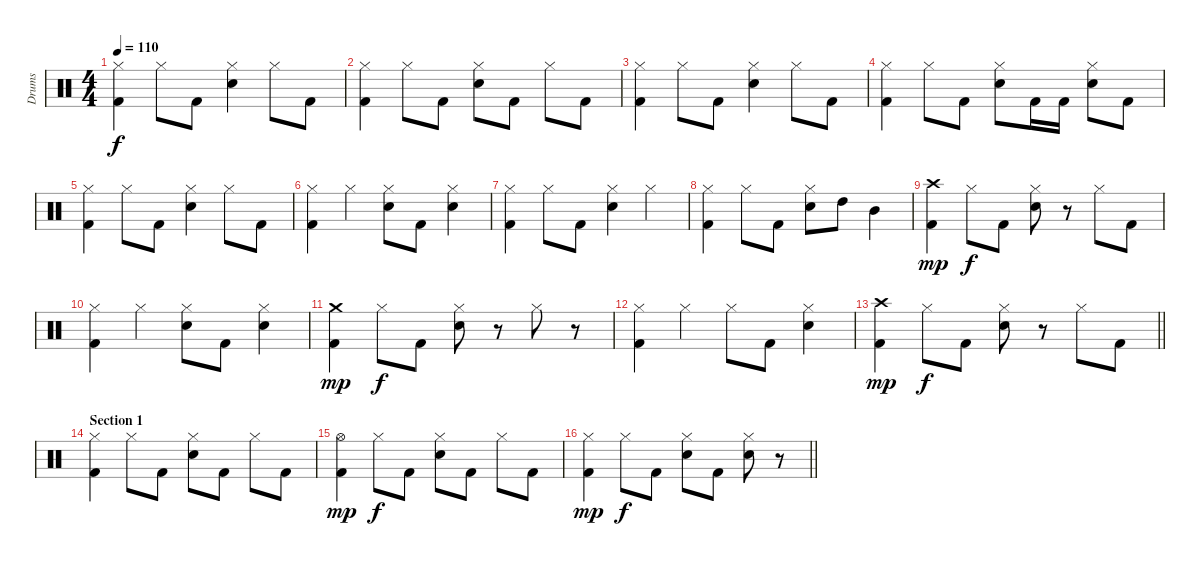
\track ("Drums" "Drums") {instrument percussion}
\staff {score}
\articulation defaults
\ts (4 4)
\tempo 110
\clef neutral
\ks c
("Hi-Hat (closed)" "Kick (hit) 2").4{dy f} "Hi-Hat (closed)".8 "Kick (hit) 2".8 ("Hi-Hat (closed)" "Snare (hit) 2").4 "Hi-Hat (closed)".8 "Kick (hit) 2".8 |
("Hi-Hat (closed)" "Kick (hit) 2").4 "Hi-Hat (closed)".8 "Kick (hit) 2".8 ("Hi-Hat (closed)" "Snare (hit) 2").8 "Kick (hit) 2".8 "Hi-Hat (closed)".8 "Kick (hit) 2".8 |
("Hi-Hat (closed)" "Kick (hit) 2").4 "Hi-Hat (closed)".8 "Kick (hit) 2".8 ("Hi-Hat (closed)" "Snare (hit) 2").4 "Hi-Hat (closed)".8 "Kick (hit) 2".8 |
("Hi-Hat (closed)" "Kick (hit) 2").4 "Hi-Hat (closed)".8 "Kick (hit) 2".8 ("Hi-Hat (closed)" "Snare (hit) 2").8 "Kick (hit) 2".16 "Kick (hit) 2".16 ("Hi-Hat (closed)" "Snare (hit) 2").8 "Kick (hit) 2".8 |
("Hi-Hat (closed)" "Kick (hit) 2").4 "Hi-Hat (closed)".8 "Kick (hit) 2".8 ("Hi-Hat (closed)" "Snare (hit) 2").4 "Hi-Hat (closed)".8 "Kick (hit) 2".8 |
("Hi-Hat (closed)" "Kick (hit) 2").4 "Hi-Hat (closed)".4 ("Hi-Hat (closed)" "Snare (hit) 2").8 "Kick (hit) 2".8 ("Hi-Hat (closed)" "Snare (hit) 2").4 |
("Hi-Hat (closed)" "Kick (hit) 2").4 "Hi-Hat (closed)".8 "Kick (hit) 2".8 ("Hi-Hat (closed)" "Snare (hit) 2").4 "Hi-Hat (closed)".4 |
("Hi-Hat (closed)" "Kick (hit) 2").4 "Hi-Hat (closed)".8 "Kick (hit) 2".8 ("Hi-Hat (closed)" "Snare (hit) 2").8 "High Tom (hit)".8 "Mid Tom (hit)".4 |
("Crash high (hit)" "Kick (hit) 2").4{dy mp} "Hi-Hat (closed)".8{dy f} "Kick (hit) 2".8 ("Hi-Hat (closed)" "Snare (hit) 2").8 r.8 "Hi-Hat (closed)".8 "Kick (hit) 2".8 |
("Hi-Hat (closed)" "Kick (hit) 2").4 "Hi-Hat (closed)".4 ("Hi-Hat (closed)" "Snare (hit) 2").8 "Kick (hit) 2".8 ("Hi-Hat (closed)" "Snare (hit) 2").4 |
("Crash medium (hit)" "Kick (hit) 2").4{dy mp} "Hi-Hat (closed)".8{dy f} "Kick (hit) 2".8 ("Hi-Hat (closed)" "Snare (hit) 2").8 r.8 "Hi-Hat (closed)".8 r.8 |
("Hi-Hat (closed)" "Kick (hit) 2").4 "Hi-Hat (closed)".4 "Hi-Hat (closed)".8 "Kick (hit) 2".8 ("Hi-Hat (closed)" "Snare (hit) 2").4 |
\barLineRight lightlight
("Crash high (hit)" "Kick (hit) 2").4{dy mp} "Hi-Hat (closed)".8{dy f} "Kick (hit) 2".8 ("Hi-Hat (closed)" "Snare (hit) 2").8 r.8 "Hi-Hat (closed)".8 "Kick (hit) 2".8 |
\section ("" "Section 1")
("Hi-Hat (closed)" "Kick (hit) 2").4 "Hi-Hat (closed)".8 "Kick (hit) 2".8 ("Hi-Hat (closed)" "Snare (hit) 2").8 "Kick (hit) 2".8 "Hi-Hat (closed)".8 "Kick (hit) 2".8 |
("Hi-Hat (open)" "Kick (hit) 2").4{dy mp} "Hi-Hat (closed)".8{dy f} "Kick (hit) 2".8 ("Hi-Hat (closed)" "Snare (hit) 2").8 "Kick (hit) 2".8 "Hi-Hat (closed)".8 "Kick (hit) 2".8 |
\barLineRight lightlight
("Hi-Hat (closed)" "Kick (hit) 2").4{dy mp} "Hi-Hat (closed)".8{dy f} "Kick (hit) 2".8 ("Hi-Hat (closed)" "Snare (hit) 2").8 "Kick (hit) 2".8 ("Hi-Hat (closed)" "Snare (hit) 2").8 r.8
